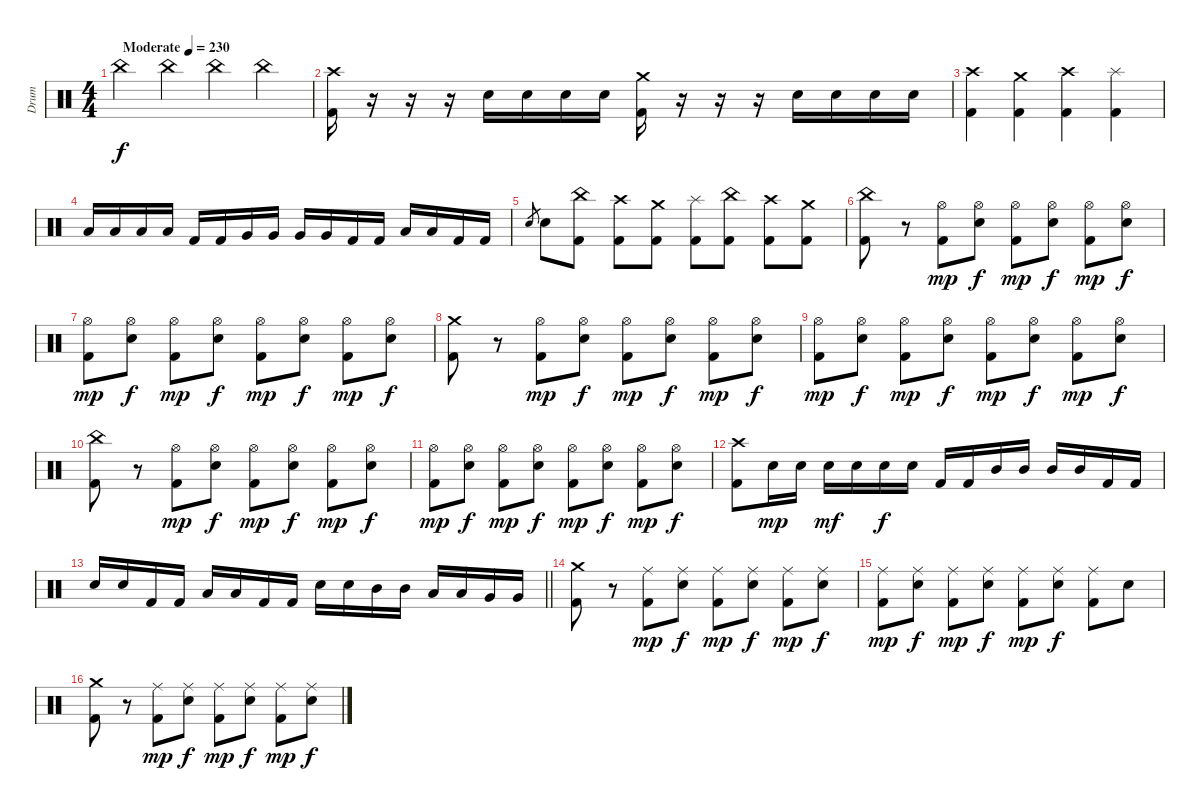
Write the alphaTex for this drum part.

\track ("Drum" "Drum") {instrument percussion}
\staff {score}
\articulation defaults
\ts (4 4)
\tempo (230 "Moderate")
\clef neutral
\ks c "China (hit)".4{dy f} "China (hit)".4 "China (hit)".4 "China (hit)".4
|
("Crash high (hit)" "Kick (hit) 2").16 r.16 r.16 r.16 "Electric Snare (hit)".16 "Electric Snare (hit)".16 "Electric Snare (hit)".16 "Electric Snare (hit)".16 ("Crash medium (hit)" "Kick (hit) 2").16 r.16 r.16 r.16 "Electric Snare (hit)".16 "Electric Snare (hit)".16 "Electric Snare (hit)".16 "Electric Snare (hit)".16 |
("Crash high (hit)" "Kick (hit) 2").4 ("Crash medium (hit)" "Kick (hit) 2").4 ("Crash high (hit)" "Kick (hit) 2").4 ("Splash (hit)" "Kick (hit) 2").4 |
"Low Tom (hit)".16 "Low Tom (hit)".16 "Low Tom (hit)".16 "Low Tom (hit)".16 "Kick (hit) 2".16 "Kick (hit) 2".16 "Very Low Tom (hit)".16 "Very Low Tom (hit)".16 "Very Low Tom (hit)".16 "Very Low Tom (hit)".16 "Kick (hit) 2".16 "Kick (hit) 2".16 "Low Floor Tom (hit)".16 "Low Floor Tom (hit)".16 "Kick (hit) 2".16 "Kick (hit) 2".16 |
"Electric Snare (hit)".8{gr} "Electric Snare (hit)".8 ("China (hit)" "Kick (hit) 2").8 ("Crash high (hit)" "Kick (hit) 2").8 ("Crash medium (hit)" "Kick (hit) 2").8 ("Splash (hit)" "Kick (hit) 2").8 ("China (hit)" "Kick (hit) 2").8 ("Crash high (hit)" "Kick (hit) 2").8 ("Crash medium (hit)" "Kick (hit) 2").8 |
("China (hit)" "Kick (hit) 2").8 r.8 ("Hi-Hat (open)" "Kick (hit) 2").8{dy mp} ("Hi-Hat (open)" "Electric Snare (hit)").8{dy f} ("Hi-Hat (open)" "Kick (hit) 2").8{dy mp} ("Hi-Hat (open)" "Electric Snare (hit)").8{dy f} ("Hi-Hat (open)" "Kick (hit) 2").8{dy mp} ("Hi-Hat (open)" "Electric Snare (hit)").8{dy f} |
("Hi-Hat (open)" "Kick (hit) 2").8{dy mp} ("Hi-Hat (open)" "Electric Snare (hit)").8{dy f} ("Hi-Hat (open)" "Kick (hit) 2").8{dy mp} ("Hi-Hat (open)" "Electric Snare (hit)").8{dy f} ("Hi-Hat (open)" "Kick (hit) 2").8{dy mp} ("Hi-Hat (open)" "Electric Snare (hit)").8{dy f} ("Hi-Hat (open)" "Kick (hit) 2").8{dy mp} ("Hi-Hat (open)" "Electric Snare (hit)").8{dy f} |
("Crash medium (hit)" "Kick (hit) 2").8 r.8 ("Hi-Hat (open)" "Kick (hit) 2").8{dy mp} ("Hi-Hat (open)" "Electric Snare (hit)").8{dy f} ("Hi-Hat (open)" "Kick (hit) 2").8{dy mp} ("Hi-Hat (open)" "Electric Snare (hit)").8{dy f} ("Hi-Hat (open)" "Kick (hit) 2").8{dy mp} ("Hi-Hat (open)" "Electric Snare (hit)").8{dy f} |
("Hi-Hat (open)" "Kick (hit) 2").8{dy mp} ("Hi-Hat (open)" "Electric Snare (hit)").8{dy f} ("Hi-Hat (open)" "Kick (hit) 2").8{dy mp} ("Hi-Hat (open)" "Electric Snare (hit)").8{dy f} ("Hi-Hat (open)" "Kick (hit) 2").8{dy mp} ("Hi-Hat (open)" "Electric Snare (hit)").8{dy f} ("Hi-Hat (open)" "Kick (hit) 2").8{dy mp} ("Hi-Hat (open)" "Electric Snare (hit)").8{dy f} |
("China (hit)" "Kick (hit) 2").8 r.8 ("Hi-Hat (open)" "Kick (hit) 2").8{dy mp} ("Hi-Hat (open)" "Electric Snare (hit)").8{dy f} ("Hi-Hat (open)" "Kick (hit) 2").8{dy mp} ("Hi-Hat (open)" "Electric Snare (hit)").8{dy f} ("Hi-Hat (open)" "Kick (hit) 2").8{dy mp} ("Hi-Hat (open)" "Electric Snare (hit)").8{dy f} |
("Hi-Hat (open)" "Kick (hit) 2").8{dy mp} ("Hi-Hat (open)" "Electric Snare (hit)").8{dy f} ("Hi-Hat (open)" "Kick (hit) 2").8{dy mp} ("Hi-Hat (open)" "Electric Snare (hit)").8{dy f} ("Hi-Hat (open)" "Kick (hit) 2").8{dy mp} ("Hi-Hat (open)" "Electric Snare (hit)").8{dy f} ("Hi-Hat (open)" "Kick (hit) 2").8{dy mp} ("Hi-Hat (open)" "Electric Snare (hit)").8{dy f} |
("Crash high (hit)" "Kick (hit) 2").8 "Electric Snare (hit)".16{dy mp} "Electric Snare (hit)".16 "Electric Snare (hit)".16{dy mf} "Electric Snare (hit)".16 "Electric Snare (hit)".16{dy f} "Electric Snare (hit)".16 "Kick (hit) 2".16 "Kick (hit) 2".16 "Mid Tom (hit)".16 "Mid Tom (hit)".16 "Mid Tom (hit)".16 "Mid Tom (hit)".16 "Kick (hit) 2".16 "Kick (hit) 2".16 |
\barLineRight lightlight "Electric Snare (hit)".16 "Electric Snare (hit)".16 "Kick (hit) 2".16 "Kick (hit) 2".16 "Low Tom (hit)".16 "Low Tom (hit)".16 "Kick (hit) 2".16 "Kick (hit) 2".16 "Electric Snare (hit)".16 "Electric Snare (hit)".16 "Mid Tom (hit)".16 "Mid Tom (hit)".16 "Low Tom (hit)".16 "Low Tom (hit)".16 "Very Low Tom (hit)".16 "Very Low Tom (hit)".16
|
("Crash medium (hit)" "Kick (hit) 2").8 r.8 ("Ride (middle)" "Kick (hit) 2").8{dy mp} ("Ride (middle)" "Electric Snare (hit)").8{dy f} ("Ride (middle)" "Kick (hit) 2").8{dy mp} ("Ride (middle)" "Electric Snare (hit)").8{dy f} ("Ride (middle)" "Kick (hit) 2").8{dy mp} ("Ride (middle)" "Electric Snare (hit)").8{dy f} |
("Ride (middle)" "Kick (hit) 2").8{dy mp} ("Ride (middle)" "Electric Snare (hit)").8{dy f} ("Ride (middle)" "Kick (hit) 2").8{dy mp} ("Ride (middle)" "Electric Snare (hit)").8{dy f} ("Ride (middle)" "Kick (hit) 2").8{dy mp} ("Ride (middle)" "Electric Snare (hit)").8{dy f} ("Ride (middle)" "Kick (hit) 2").8 "Electric Snare (hit)".8 |
("Crash medium (hit)" "Kick (hit) 2").8 r.8 ("Ride (middle)" "Kick (hit) 2").8{dy mp} ("Ride (middle)" "Electric Snare (hit)").8{dy f} ("Ride (middle)" "Kick (hit) 2").8{dy mp} ("Ride (middle)" "Electric Snare (hit)").8{dy f} ("Ride (middle)" "Kick (hit) 2").8{dy mp} ("Ride (middle)" "Electric Snare (hit)").8{dy f}
